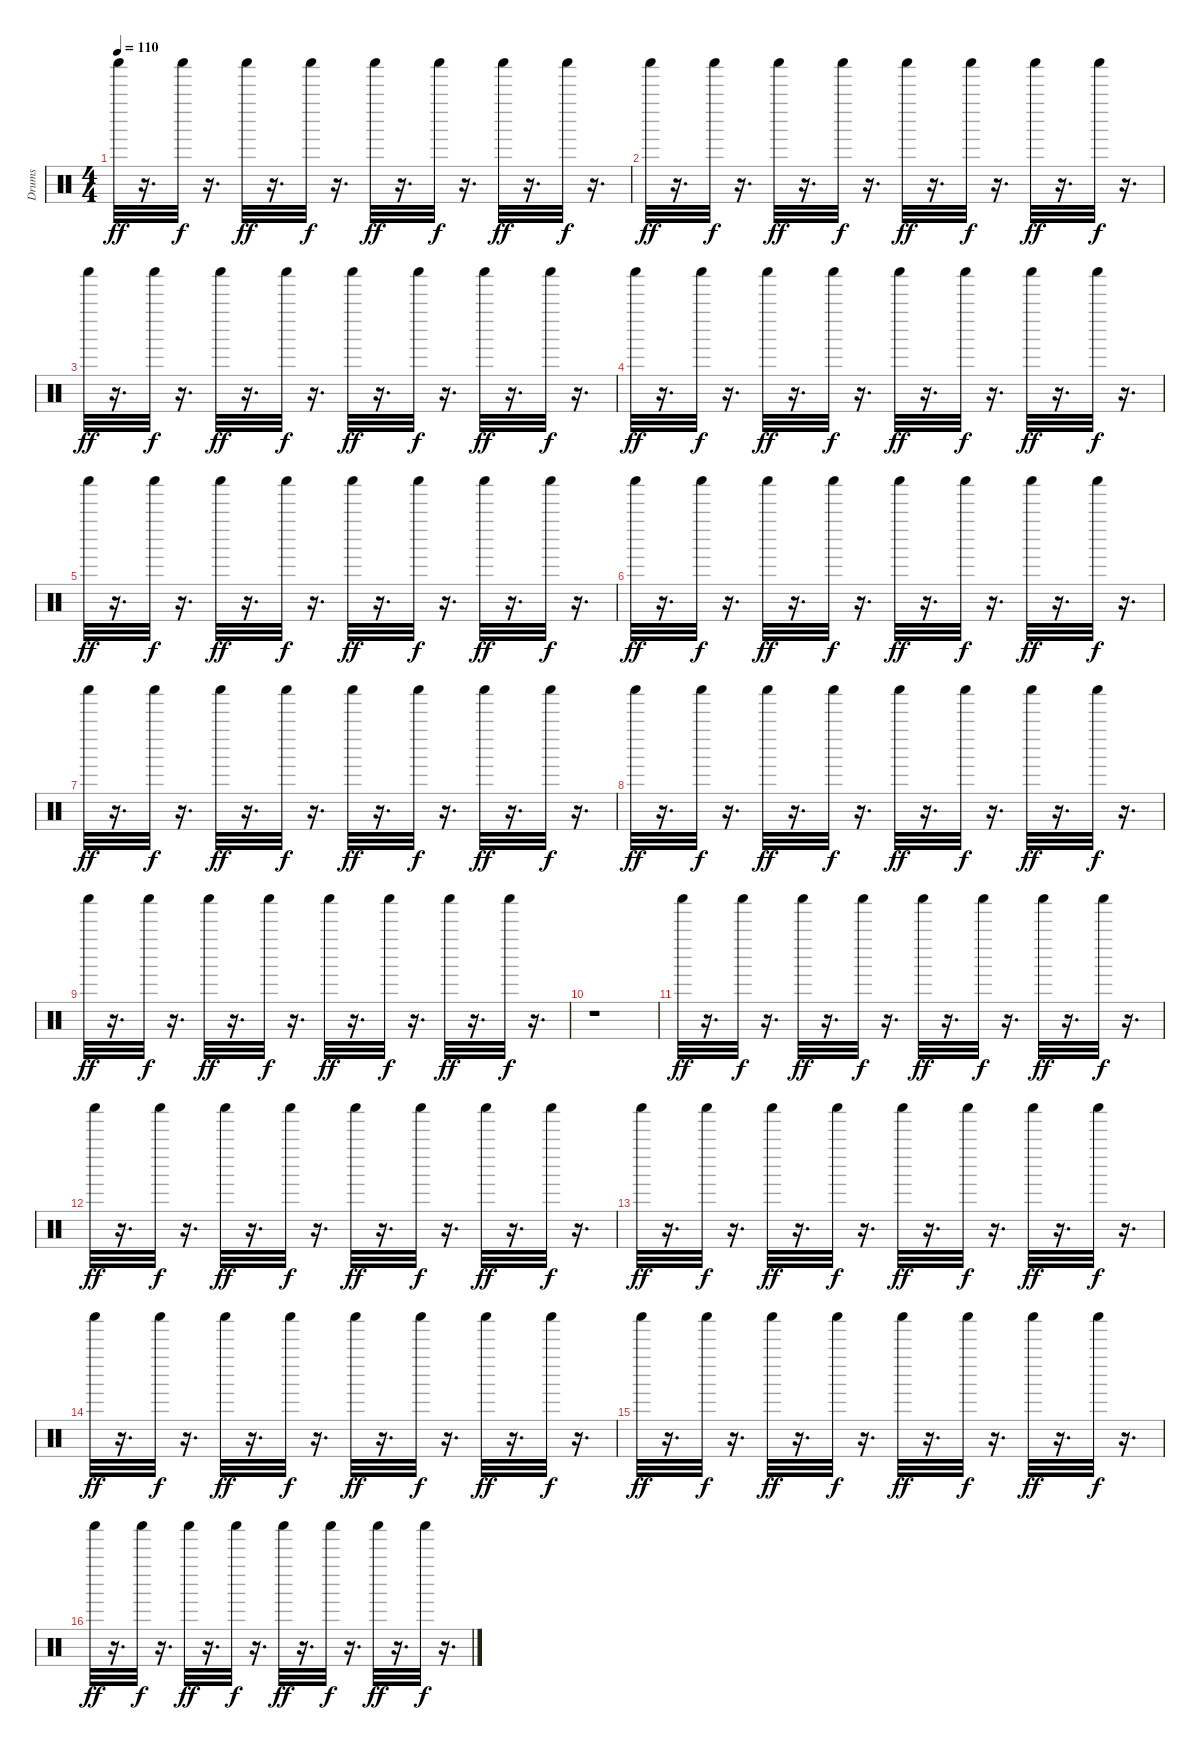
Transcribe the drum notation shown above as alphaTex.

\track ("Drums" "Drums") {instrument percussion}
\staff {score}
\articulation defaults
\ts (4 4)
\tempo 110
\clef neutral
\ks c "Shaker (hit)".32{dy ff}
r.16{d} "Shaker (hit)".32{dy f} r.16{d} "Shaker (hit)".32{dy ff} r.16{d} "Shaker (hit)".32{dy f} r.16{d} "Shaker (hit)".32{dy ff} r.16{d} "Shaker (hit)".32{dy f} r.16{d} "Shaker (hit)".32{dy ff} r.16{d} "Shaker (hit)".32{dy f} r.16{d} |
"Shaker (hit)".32{dy ff} r.16{d} "Shaker (hit)".32{dy f} r.16{d} "Shaker (hit)".32{dy ff} r.16{d} "Shaker (hit)".32{dy f} r.16{d} "Shaker (hit)".32{dy ff} r.16{d} "Shaker (hit)".32{dy f} r.16{d} "Shaker (hit)".32{dy ff} r.16{d} "Shaker (hit)".32{dy f} r.16{d} |
"Shaker (hit)".32{dy ff} r.16{d} "Shaker (hit)".32{dy f} r.16{d} "Shaker (hit)".32{dy ff} r.16{d} "Shaker (hit)".32{dy f} r.16{d} "Shaker (hit)".32{dy ff} r.16{d} "Shaker (hit)".32{dy f} r.16{d} "Shaker (hit)".32{dy ff} r.16{d} "Shaker (hit)".32{dy f} r.16{d} |
"Shaker (hit)".32{dy ff} r.16{d} "Shaker (hit)".32{dy f} r.16{d} "Shaker (hit)".32{dy ff} r.16{d} "Shaker (hit)".32{dy f} r.16{d} "Shaker (hit)".32{dy ff} r.16{d} "Shaker (hit)".32{dy f} r.16{d} "Shaker (hit)".32{dy ff} r.16{d} "Shaker (hit)".32{dy f} r.16{d} |
"Shaker (hit)".32{dy ff} r.16{d} "Shaker (hit)".32{dy f} r.16{d} "Shaker (hit)".32{dy ff} r.16{d} "Shaker (hit)".32{dy f} r.16{d} "Shaker (hit)".32{dy ff} r.16{d} "Shaker (hit)".32{dy f} r.16{d} "Shaker (hit)".32{dy ff} r.16{d} "Shaker (hit)".32{dy f} r.16{d} |
"Shaker (hit)".32{dy ff} r.16{d} "Shaker (hit)".32{dy f} r.16{d} "Shaker (hit)".32{dy ff} r.16{d} "Shaker (hit)".32{dy f} r.16{d} "Shaker (hit)".32{dy ff} r.16{d} "Shaker (hit)".32{dy f} r.16{d} "Shaker (hit)".32{dy ff} r.16{d} "Shaker (hit)".32{dy f} r.16{d} |
"Shaker (hit)".32{dy ff} r.16{d} "Shaker (hit)".32{dy f} r.16{d} "Shaker (hit)".32{dy ff} r.16{d} "Shaker (hit)".32{dy f} r.16{d} "Shaker (hit)".32{dy ff} r.16{d} "Shaker (hit)".32{dy f} r.16{d} "Shaker (hit)".32{dy ff} r.16{d} "Shaker (hit)".32{dy f} r.16{d} |
"Shaker (hit)".32{dy ff} r.16{d} "Shaker (hit)".32{dy f} r.16{d} "Shaker (hit)".32{dy ff} r.16{d} "Shaker (hit)".32{dy f} r.16{d} "Shaker (hit)".32{dy ff} r.16{d} "Shaker (hit)".32{dy f} r.16{d} "Shaker (hit)".32{dy ff} r.16{d} "Shaker (hit)".32{dy f} r.16{d} |
"Shaker (hit)".32{dy ff} r.16{d} "Shaker (hit)".32{dy f} r.16{d} "Shaker (hit)".32{dy ff} r.16{d} "Shaker (hit)".32{dy f} r.16{d} "Shaker (hit)".32{dy ff} r.16{d} "Shaker (hit)".32{dy f} r.16{d} "Shaker (hit)".32{dy ff} r.16{d} "Shaker (hit)".32{dy f} r.16{d} |
r.1 |
"Shaker (hit)".32{dy ff} r.16{d} "Shaker (hit)".32{dy f} r.16{d} "Shaker (hit)".32{dy ff} r.16{d} "Shaker (hit)".32{dy f} r.16{d} "Shaker (hit)".32{dy ff} r.16{d} "Shaker (hit)".32{dy f} r.16{d} "Shaker (hit)".32{dy ff} r.16{d} "Shaker (hit)".32{dy f} r.16{d} |
"Shaker (hit)".32{dy ff} r.16{d} "Shaker (hit)".32{dy f} r.16{d} "Shaker (hit)".32{dy ff} r.16{d} "Shaker (hit)".32{dy f} r.16{d} "Shaker (hit)".32{dy ff} r.16{d} "Shaker (hit)".32{dy f} r.16{d} "Shaker (hit)".32{dy ff} r.16{d} "Shaker (hit)".32{dy f} r.16{d} |
"Shaker (hit)".32{dy ff} r.16{d} "Shaker (hit)".32{dy f} r.16{d} "Shaker (hit)".32{dy ff} r.16{d} "Shaker (hit)".32{dy f} r.16{d} "Shaker (hit)".32{dy ff} r.16{d} "Shaker (hit)".32{dy f} r.16{d} "Shaker (hit)".32{dy ff} r.16{d} "Shaker (hit)".32{dy f} r.16{d} |
"Shaker (hit)".32{dy ff} r.16{d} "Shaker (hit)".32{dy f} r.16{d} "Shaker (hit)".32{dy ff} r.16{d} "Shaker (hit)".32{dy f} r.16{d} "Shaker (hit)".32{dy ff} r.16{d} "Shaker (hit)".32{dy f} r.16{d} "Shaker (hit)".32{dy ff} r.16{d} "Shaker (hit)".32{dy f} r.16{d} |
"Shaker (hit)".32{dy ff} r.16{d} "Shaker (hit)".32{dy f} r.16{d} "Shaker (hit)".32{dy ff} r.16{d} "Shaker (hit)".32{dy f} r.16{d} "Shaker (hit)".32{dy ff} r.16{d} "Shaker (hit)".32{dy f} r.16{d} "Shaker (hit)".32{dy ff} r.16{d} "Shaker (hit)".32{dy f} r.16{d} |
"Shaker (hit)".32{dy ff} r.16{d} "Shaker (hit)".32{dy f} r.16{d} "Shaker (hit)".32{dy ff} r.16{d} "Shaker (hit)".32{dy f} r.16{d} "Shaker (hit)".32{dy ff} r.16{d} "Shaker (hit)".32{dy f} r.16{d} "Shaker (hit)".32{dy ff} r.16{d} "Shaker (hit)".32{dy f} r.16{d}
